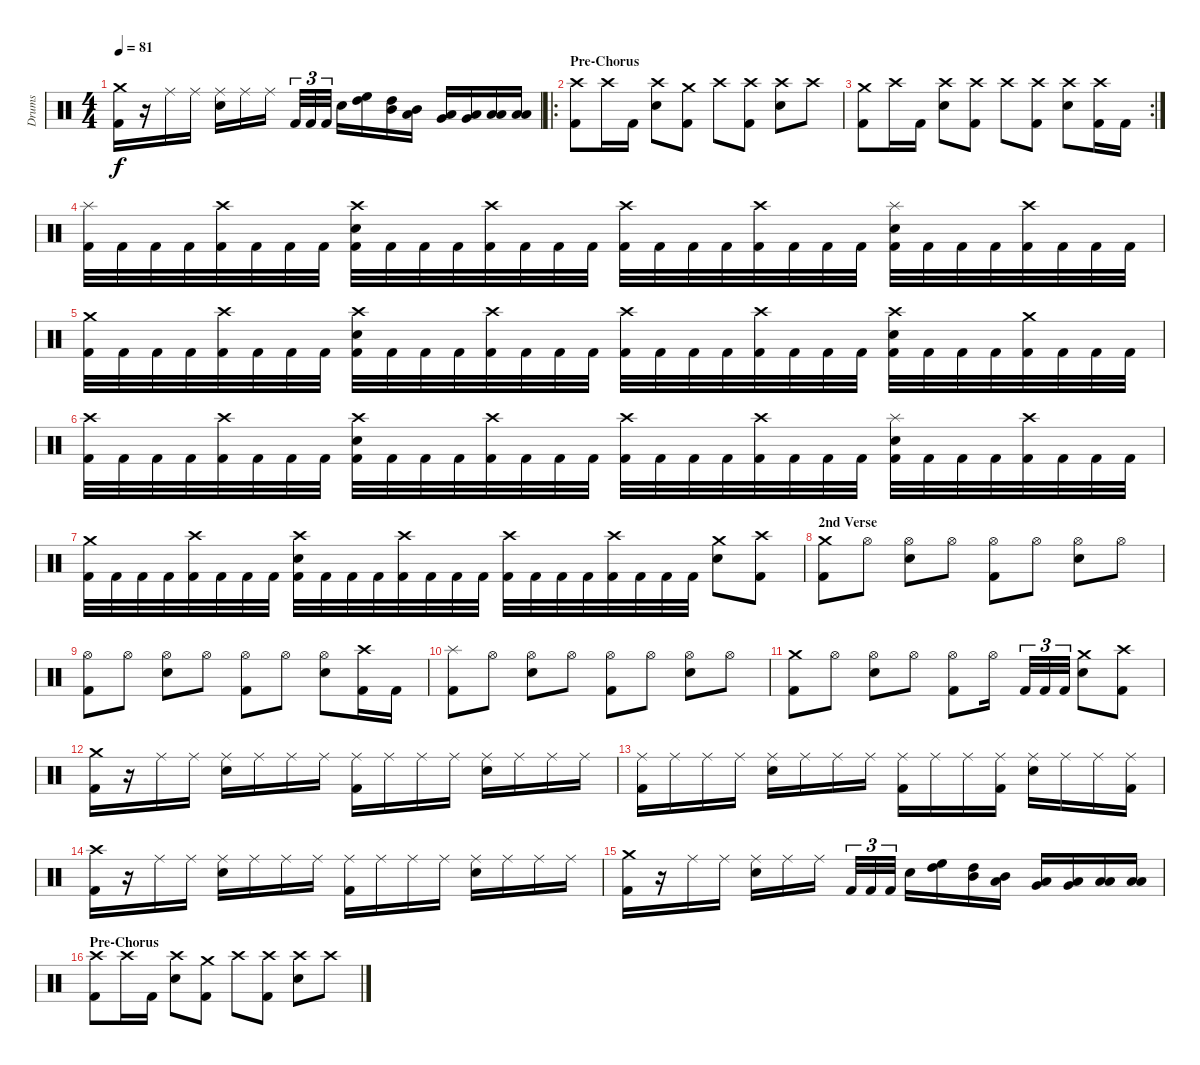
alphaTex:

\track ("Drums" "Drums") {instrument percussion}
\staff {score}
\articulation defaults
\ts (4 4)
\tempo 81
\clef neutral
\ks c
("Crash medium (hit)" "Kick (hit) 2").16{dy f} r.16 "Ride (middle)".16 "Ride (middle)".16 ("Ride (middle)" "Electric Snare (hit)").16 "Ride (middle)".16 "Ride (middle)".16 "Kick (hit) 2".32{tu (3 2)} "Kick (hit) 2".32{tu (3 2)} "Kick (hit) 2".32{tu (3 2)} "Electric Snare (hit)".16 ("High Floor Tom (hit)" "High Tom (hit)").16 ("High Tom (hit)" "Mid Tom (hit)").16 ("Mid Tom (hit)" "Low Tom (hit)").16 ("Low Tom (hit)" "Very Low Tom (hit)").16 ("Very Low Tom (hit)" "Low Floor Tom (hit)").16 ("Low Floor Tom (hit)" "Low Floor Tom (hit)").16 ("Low Floor Tom (hit)" "Low Floor Tom (hit)").16 |
\ro
\section ("" "Pre-Chorus")
("Crash high (hit)" "Kick (hit) 2").8 "Crash high (hit)".16 "Kick (hit) 2".16 ("Crash high (hit)" "Electric Snare (hit)").8 ("Crash medium (hit)" "Kick (hit) 2").8 "Crash high (hit)".8 ("Crash high (hit)" "Kick (hit) 2").8 ("Crash high (hit)" "Electric Snare (hit)").8 "Crash high (hit)".8 |
\rc 2
("Crash medium (hit)" "Kick (hit) 2").8 "Crash high (hit)".16 "Kick (hit) 2".16 ("Crash high (hit)" "Electric Snare (hit)").8 ("Crash high (hit)" "Kick (hit) 2").8 "Crash high (hit)".8 ("Crash high (hit)" "Kick (hit) 2").8 ("Crash high (hit)" "Electric Snare (hit)").8 ("Crash high (hit)" "Kick (hit) 2").16 "Kick (hit) 2".16 |
("Splash (hit)" "Kick (hit) 2").32 "Kick (hit) 2".32 "Kick (hit) 2".32 "Kick (hit) 2".32 ("Crash high (hit)" "Kick (hit) 2").32 "Kick (hit) 2".32 "Kick (hit) 2".32 "Kick (hit) 2".32 ("Crash high (hit)" "Electric Snare (hit)" "Kick (hit) 2").32 "Kick (hit) 2".32 "Kick (hit) 2".32 "Kick (hit) 2".32 ("Crash high (hit)" "Kick (hit) 2").32 "Kick (hit) 2".32 "Kick (hit) 2".32 "Kick (hit) 2".32 ("Crash high (hit)" "Kick (hit) 2").32 "Kick (hit) 2".32 "Kick (hit) 2".32 "Kick (hit) 2".32 ("Crash high (hit)" "Kick (hit) 2").32 "Kick (hit) 2".32 "Kick (hit) 2".32 "Kick (hit) 2".32 ("Splash (hit)" "Electric Snare (hit)" "Kick (hit) 2").32 "Kick (hit) 2".32 "Kick (hit) 2".32 "Kick (hit) 2".32 ("Crash high (hit)" "Kick (hit) 2").32 "Kick (hit) 2".32 "Kick (hit) 2".32 "Kick (hit) 2".32 |
("Crash medium (hit)" "Kick (hit) 2").32 "Kick (hit) 2".32 "Kick (hit) 2".32 "Kick (hit) 2".32 ("Crash high (hit)" "Kick (hit) 2").32 "Kick (hit) 2".32 "Kick (hit) 2".32 "Kick (hit) 2".32 ("Crash high (hit)" "Electric Snare (hit)" "Kick (hit) 2").32 "Kick (hit) 2".32 "Kick (hit) 2".32 "Kick (hit) 2".32 ("Crash high (hit)" "Kick (hit) 2").32 "Kick (hit) 2".32 "Kick (hit) 2".32 "Kick (hit) 2".32 ("Crash high (hit)" "Kick (hit) 2").32 "Kick (hit) 2".32 "Kick (hit) 2".32 "Kick (hit) 2".32 ("Crash high (hit)" "Kick (hit) 2").32 "Kick (hit) 2".32 "Kick (hit) 2".32 "Kick (hit) 2".32 ("Crash high (hit)" "Electric Snare (hit)" "Kick (hit) 2").32 "Kick (hit) 2".32 "Kick (hit) 2".32 "Kick (hit) 2".32 ("Crash medium (hit)" "Kick (hit) 2").32 "Kick (hit) 2".32 "Kick (hit) 2".32 "Kick (hit) 2".32 |
("Crash high (hit)" "Kick (hit) 2").32 "Kick (hit) 2".32 "Kick (hit) 2".32 "Kick (hit) 2".32 ("Crash high (hit)" "Kick (hit) 2").32 "Kick (hit) 2".32 "Kick (hit) 2".32 "Kick (hit) 2".32 ("Crash high (hit)" "Electric Snare (hit)" "Kick (hit) 2").32 "Kick (hit) 2".32 "Kick (hit) 2".32 "Kick (hit) 2".32 ("Crash high (hit)" "Kick (hit) 2").32 "Kick (hit) 2".32 "Kick (hit) 2".32 "Kick (hit) 2".32 ("Crash high (hit)" "Kick (hit) 2").32 "Kick (hit) 2".32 "Kick (hit) 2".32 "Kick (hit) 2".32 ("Crash high (hit)" "Kick (hit) 2").32 "Kick (hit) 2".32 "Kick (hit) 2".32 "Kick (hit) 2".32 ("Splash (hit)" "Electric Snare (hit)" "Kick (hit) 2").32 "Kick (hit) 2".32 "Kick (hit) 2".32 "Kick (hit) 2".32 ("Crash high (hit)" "Kick (hit) 2").32 "Kick (hit) 2".32 "Kick (hit) 2".32 "Kick (hit) 2".32 |
("Crash medium (hit)" "Kick (hit) 2").32 "Kick (hit) 2".32 "Kick (hit) 2".32 "Kick (hit) 2".32 ("Crash high (hit)" "Kick (hit) 2").32 "Kick (hit) 2".32 "Kick (hit) 2".32 "Kick (hit) 2".32 ("Crash high (hit)" "Electric Snare (hit)" "Kick (hit) 2").32 "Kick (hit) 2".32 "Kick (hit) 2".32 "Kick (hit) 2".32 ("Crash high (hit)" "Kick (hit) 2").32 "Kick (hit) 2".32 "Kick (hit) 2".32 "Kick (hit) 2".32 ("Crash high (hit)" "Kick (hit) 2").32 "Kick (hit) 2".32 "Kick (hit) 2".32 "Kick (hit) 2".32 ("Crash high (hit)" "Kick (hit) 2").32 "Kick (hit) 2".32 "Kick (hit) 2".32 "Kick (hit) 2".32 ("Crash medium (hit)" "Electric Snare (hit)").8 ("Crash high (hit)" "Kick (hit) 2").8 |
\section ("" "2nd Verse")
("Crash medium (hit)" "Kick (hit) 2").8 "Hi-Hat (open)".8 ("Hi-Hat (open)" "Electric Snare (hit)").8 "Hi-Hat (open)".8 ("Hi-Hat (open)" "Kick (hit) 2").8 "Hi-Hat (open)".8 ("Hi-Hat (open)" "Electric Snare (hit)").8 "Hi-Hat (open)".8 |
("Hi-Hat (open)" "Kick (hit) 2").8 "Hi-Hat (open)".8 ("Hi-Hat (open)" "Electric Snare (hit)").8 "Hi-Hat (open)".8 ("Hi-Hat (open)" "Kick (hit) 2").8 "Hi-Hat (open)".8 ("Hi-Hat (open)" "Electric Snare (hit)").8 ("Crash high (hit)" "Kick (hit) 2").16 "Kick (hit) 2".16 |
("Splash (hit)" "Kick (hit) 2").8 "Hi-Hat (open)".8 ("Hi-Hat (open)" "Electric Snare (hit)").8 "Hi-Hat (open)".8 ("Hi-Hat (open)" "Kick (hit) 2").8 "Hi-Hat (open)".8 ("Hi-Hat (open)" "Electric Snare (hit)").8 "Hi-Hat (open)".8 |
("Crash medium (hit)" "Kick (hit) 2").8 "Hi-Hat (open)".8 ("Hi-Hat (open)" "Electric Snare (hit)").8 "Hi-Hat (open)".8 ("Hi-Hat (open)" "Kick (hit) 2").8 "Hi-Hat (open)".16 "Kick (hit) 2".32{tu (3 2)} "Kick (hit) 2".32{tu (3 2)} "Kick (hit) 2".32{tu (3 2)} ("Crash medium (hit)" "Electric Snare (hit)").8 ("Crash high (hit)" "Kick (hit) 2").8 |
("Crash medium (hit)" "Kick (hit) 2").16 r.16 "Ride (middle)".16 "Ride (middle)".16 ("Ride (middle)" "Electric Snare (hit)").16 "Ride (middle)".16 "Ride (middle)".16 "Ride (middle)".16 ("Ride (middle)" "Kick (hit) 2").16 "Ride (middle)".16 "Ride (middle)".16 "Ride (middle)".16 ("Ride (middle)" "Electric Snare (hit)").16 "Ride (middle)".16 "Ride (middle)".16 "Ride (middle)".16 |
("Ride (middle)" "Kick (hit) 2").16 "Ride (middle)".16 "Ride (middle)".16 "Ride (middle)".16 ("Ride (middle)" "Electric Snare (hit)").16 "Ride (middle)".16 "Ride (middle)".16 "Ride (middle)".16 ("Ride (middle)" "Kick (hit) 2").16 "Ride (middle)".16 "Ride (middle)".16 ("Ride (middle)" "Kick (hit) 2").16 ("Ride (middle)" "Electric Snare (hit)").16 "Ride (middle)".16 "Ride (middle)".16 ("Ride (middle)" "Kick (hit) 2").16 |
("Crash high (hit)" "Kick (hit) 2").16 r.16 "Ride (middle)".16 "Ride (middle)".16 ("Ride (middle)" "Electric Snare (hit)").16 "Ride (middle)".16 "Ride (middle)".16 "Ride (middle)".16 ("Ride (middle)" "Kick (hit) 2").16 "Ride (middle)".16 "Ride (middle)".16 "Ride (middle)".16 ("Ride (middle)" "Electric Snare (hit)").16 "Ride (middle)".16 "Ride (middle)".16 "Ride (middle)".16 |
("Crash medium (hit)" "Kick (hit) 2").16 r.16 "Ride (middle)".16 "Ride (middle)".16 ("Ride (middle)" "Electric Snare (hit)").16 "Ride (middle)".16 "Ride (middle)".16 "Kick (hit) 2".32{tu (3 2)} "Kick (hit) 2".32{tu (3 2)} "Kick (hit) 2".32{tu (3 2)} "Electric Snare (hit)".16 ("High Floor Tom (hit)" "High Tom (hit)").16 ("High Tom (hit)" "Mid Tom (hit)").16 ("Mid Tom (hit)" "Low Tom (hit)").16 ("Low Tom (hit)" "Very Low Tom (hit)").16 ("Very Low Tom (hit)" "Low Floor Tom (hit)").16 ("Low Floor Tom (hit)" "Low Floor Tom (hit)").16 ("Low Floor Tom (hit)" "Low Floor Tom (hit)").16 |
\section ("" "Pre-Chorus")
("Crash high (hit)" "Kick (hit) 2").8 "Crash high (hit)".16 "Kick (hit) 2".16 ("Crash high (hit)" "Electric Snare (hit)").8 ("Crash medium (hit)" "Kick (hit) 2").8 "Crash high (hit)".8 ("Crash high (hit)" "Kick (hit) 2").8 ("Crash high (hit)" "Electric Snare (hit)").8 "Crash high (hit)".8
